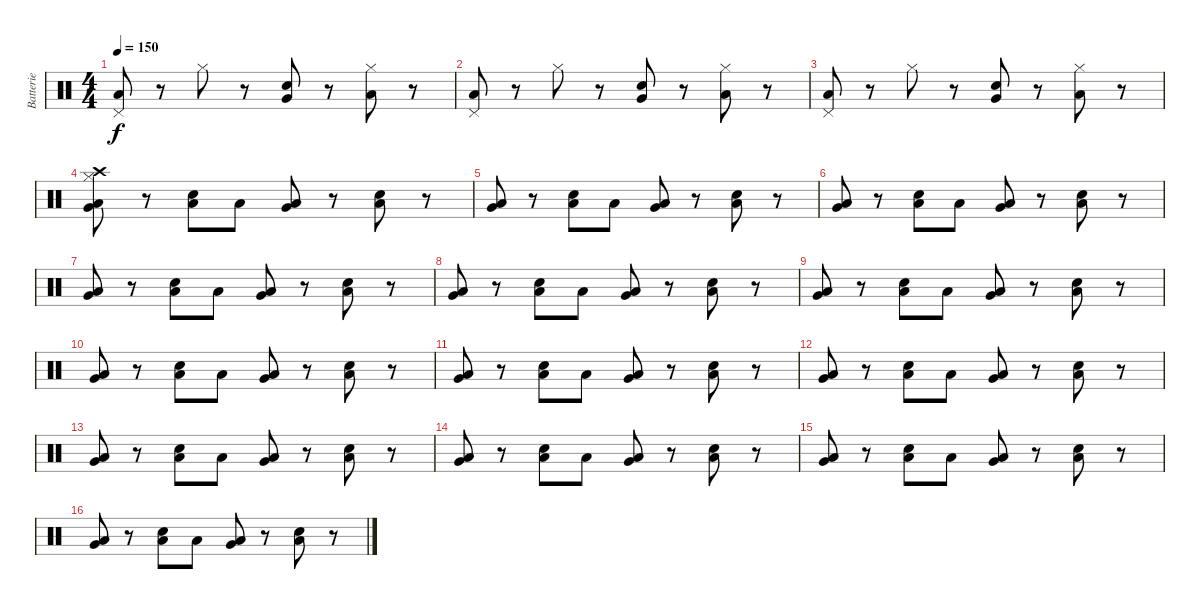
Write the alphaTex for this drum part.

\track ("Batterie" "Batterie") {instrument percussion}
\staff {score}
\articulation defaults
\ts (4 4)
\tempo 150
\clef neutral
\ks c
("Low Floor Tom (hit)" "Pedal Hi-Hat (hit)").8{dy f} r.8 "Hi-Hat (closed)".8 r.8 ("Very Low Tom (hit)" "Snare (hit) 2").8 r.8 ("Low Floor Tom (hit)" "Hi-Hat (closed)").8 r.8 |
("Low Floor Tom (hit)" "Pedal Hi-Hat (hit)").8 r.8 "Hi-Hat (closed)".8 r.8 ("Very Low Tom (hit)" "Snare (hit) 2").8 r.8 ("Low Floor Tom (hit)" "Hi-Hat (closed)").8 r.8 |
("Low Floor Tom (hit)" "Pedal Hi-Hat (hit)").8 r.8 "Hi-Hat (closed)".8 r.8 ("Very Low Tom (hit)" "Snare (hit) 2").8 r.8 ("Low Floor Tom (hit)" "Hi-Hat (closed)").8 r.8 |
("Hi-Hat (closed)" "Very Low Tom (hit)" "Low Floor Tom (hit)" "Crash high (hit)").8 r.8 ("Low Tom (hit)" "Electric Snare (hit)").8 "Low Floor Tom (hit)".8 ("Low Floor Tom (hit)" "Very Low Tom (hit)").8 r.8 ("Low Tom (hit)" "Electric Snare (hit)").8 r.8 |
("Very Low Tom (hit)" "Low Floor Tom (hit)").8 r.8 ("Low Tom (hit)" "Electric Snare (hit)").8 "Low Floor Tom (hit)".8 ("Low Floor Tom (hit)" "Very Low Tom (hit)").8 r.8 ("Low Tom (hit)" "Electric Snare (hit)").8 r.8 |
("Very Low Tom (hit)" "Low Floor Tom (hit)").8 r.8 ("Low Tom (hit)" "Electric Snare (hit)").8 "Low Floor Tom (hit)".8 ("Low Floor Tom (hit)" "Very Low Tom (hit)").8 r.8 ("Low Tom (hit)" "Electric Snare (hit)").8 r.8 |
("Very Low Tom (hit)" "Low Floor Tom (hit)").8 r.8 ("Low Tom (hit)" "Electric Snare (hit)").8 "Low Floor Tom (hit)".8 ("Low Floor Tom (hit)" "Very Low Tom (hit)").8 r.8 ("Low Tom (hit)" "Electric Snare (hit)").8 r.8 |
("Very Low Tom (hit)" "Low Floor Tom (hit)").8 r.8 ("Low Tom (hit)" "Electric Snare (hit)").8 "Low Floor Tom (hit)".8 ("Low Floor Tom (hit)" "Very Low Tom (hit)").8 r.8 ("Low Tom (hit)" "Electric Snare (hit)").8 r.8 |
("Very Low Tom (hit)" "Low Floor Tom (hit)").8 r.8 ("Low Tom (hit)" "Electric Snare (hit)").8 "Low Floor Tom (hit)".8 ("Low Floor Tom (hit)" "Very Low Tom (hit)").8 r.8 ("Low Tom (hit)" "Electric Snare (hit)").8 r.8 |
("Very Low Tom (hit)" "Low Floor Tom (hit)").8 r.8 ("Low Tom (hit)" "Electric Snare (hit)").8 "Low Floor Tom (hit)".8 ("Low Floor Tom (hit)" "Very Low Tom (hit)").8 r.8 ("Low Tom (hit)" "Electric Snare (hit)").8 r.8 |
("Very Low Tom (hit)" "Low Floor Tom (hit)").8 r.8 ("Low Tom (hit)" "Electric Snare (hit)").8 "Low Floor Tom (hit)".8 ("Low Floor Tom (hit)" "Very Low Tom (hit)").8 r.8 ("Low Tom (hit)" "Electric Snare (hit)").8 r.8 |
("Very Low Tom (hit)" "Low Floor Tom (hit)").8 r.8 ("Low Tom (hit)" "Electric Snare (hit)").8 "Low Floor Tom (hit)".8 ("Low Floor Tom (hit)" "Very Low Tom (hit)").8 r.8 ("Low Tom (hit)" "Electric Snare (hit)").8 r.8 |
("Very Low Tom (hit)" "Low Floor Tom (hit)").8 r.8 ("Low Tom (hit)" "Electric Snare (hit)").8 "Low Floor Tom (hit)".8 ("Low Floor Tom (hit)" "Very Low Tom (hit)").8 r.8 ("Low Tom (hit)" "Electric Snare (hit)").8 r.8 |
("Very Low Tom (hit)" "Low Floor Tom (hit)").8 r.8 ("Low Tom (hit)" "Electric Snare (hit)").8 "Low Floor Tom (hit)".8 ("Low Floor Tom (hit)" "Very Low Tom (hit)").8 r.8 ("Low Tom (hit)" "Electric Snare (hit)").8 r.8 |
("Very Low Tom (hit)" "Low Floor Tom (hit)").8 r.8 ("Low Tom (hit)" "Electric Snare (hit)").8 "Low Floor Tom (hit)".8 ("Low Floor Tom (hit)" "Very Low Tom (hit)").8 r.8 ("Low Tom (hit)" "Electric Snare (hit)").8 r.8 |
("Very Low Tom (hit)" "Low Floor Tom (hit)").8 r.8 ("Low Tom (hit)" "Electric Snare (hit)").8 "Low Floor Tom (hit)".8 ("Low Floor Tom (hit)" "Very Low Tom (hit)").8 r.8 ("Low Tom (hit)" "Electric Snare (hit)").8 r.8
